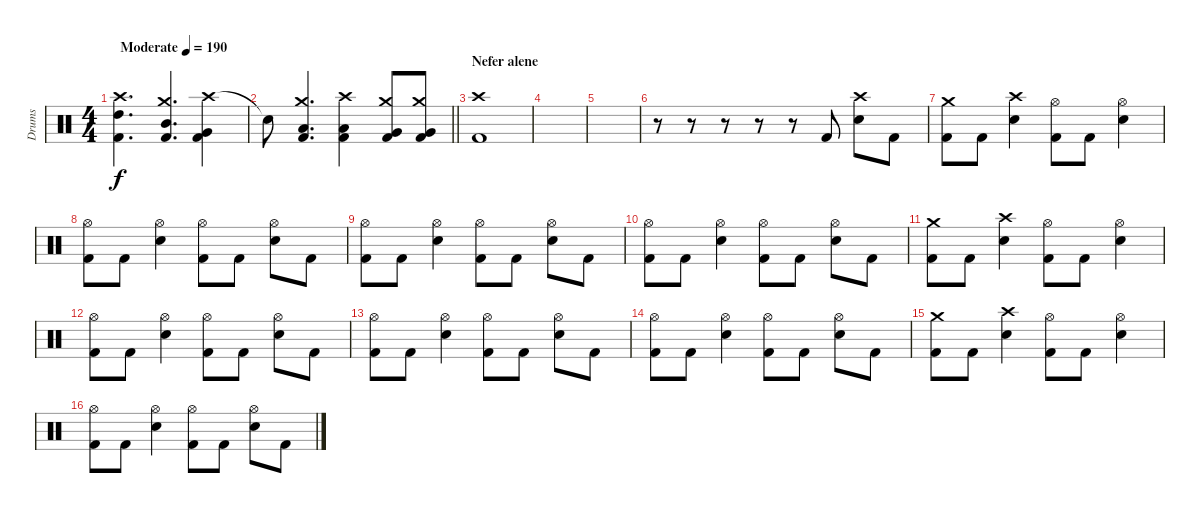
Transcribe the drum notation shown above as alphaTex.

\track ("Drums" "Drums") {instrument percussion}
\staff {score}
\articulation defaults
\ts (4 4)
\tempo (190 "Moderate")
\clef neutral
\ks c
("Crash high (hit)" "High Tom (hit)" "Kick (hit) 2").4{d dy f} ("Crash medium (hit)" "Mid Tom (hit)" "Kick (hit) 2").4{d} ("Crash high (hit)" "Very Low Tom (hit)" "Kick (hit) 2").4 |
\barLineRight lightlight "Snare (hit)"{t}.8
("Crash medium (hit)" "Low Tom (hit)" "Kick (hit) 2").4{d} ("Crash high (hit)" "Low Floor Tom (hit)" "Kick (hit) 2").4 ("Crash medium (hit)" "Very Low Tom (hit)" "Kick (hit) 2").8 ("Crash medium (hit)" "Very Low Tom (hit)" "Kick (hit) 2").8 |
\section ("" "Nefer alene")
("Crash high (hit)" "Kick (hit) 2").1 |
|
|
r.8 r.8 r.8 r.8 r.8 "Kick (hit) 2".8 ("Crash high (hit)" "Snare (hit) 2").8 "Kick (hit) 2".8 |
("Crash medium (hit)" "Kick (hit) 2").8 "Kick (hit) 2".8 ("Crash high (hit)" "Snare (hit) 2").4 ("Hi-Hat (open)" "Kick (hit) 2").8 "Kick (hit) 2".8 ("Hi-Hat (open)" "Snare (hit) 2").4 |
("Hi-Hat (open)" "Kick (hit) 2").8 "Kick (hit) 2".8 ("Hi-Hat (open)" "Snare (hit) 2").4 ("Hi-Hat (open)" "Kick (hit) 2").8 "Kick (hit) 2".8 ("Hi-Hat (open)" "Snare (hit) 2").8 "Kick (hit) 2".8 |
("Hi-Hat (open)" "Kick (hit) 2").8 "Kick (hit) 2".8 ("Hi-Hat (open)" "Snare (hit) 2").4 ("Hi-Hat (open)" "Kick (hit) 2").8 "Kick (hit) 2".8 ("Hi-Hat (open)" "Snare (hit) 2").8 "Kick (hit) 2".8 |
("Hi-Hat (open)" "Kick (hit) 2").8 "Kick (hit) 2".8 ("Hi-Hat (open)" "Snare (hit) 2").4 ("Hi-Hat (open)" "Kick (hit) 2").8 "Kick (hit) 2".8 ("Hi-Hat (open)" "Snare (hit) 2").8 "Kick (hit) 2".8 |
("Crash medium (hit)" "Kick (hit) 2").8 "Kick (hit) 2".8 ("Crash high (hit)" "Snare (hit) 2").4 ("Hi-Hat (open)" "Kick (hit) 2").8 "Kick (hit) 2".8 ("Hi-Hat (open)" "Snare (hit) 2").4 |
("Hi-Hat (open)" "Kick (hit) 2").8 "Kick (hit) 2".8 ("Hi-Hat (open)" "Snare (hit) 2").4 ("Hi-Hat (open)" "Kick (hit) 2").8 "Kick (hit) 2".8 ("Hi-Hat (open)" "Snare (hit) 2").8 "Kick (hit) 2".8 |
("Hi-Hat (open)" "Kick (hit) 2").8 "Kick (hit) 2".8 ("Hi-Hat (open)" "Snare (hit) 2").4 ("Hi-Hat (open)" "Kick (hit) 2").8 "Kick (hit) 2".8 ("Hi-Hat (open)" "Snare (hit) 2").8 "Kick (hit) 2".8 |
("Hi-Hat (open)" "Kick (hit) 2").8 "Kick (hit) 2".8 ("Hi-Hat (open)" "Snare (hit) 2").4 ("Hi-Hat (open)" "Kick (hit) 2").8 "Kick (hit) 2".8 ("Hi-Hat (open)" "Snare (hit) 2").8 "Kick (hit) 2".8 |
("Crash medium (hit)" "Kick (hit) 2").8 "Kick (hit) 2".8 ("Crash high (hit)" "Snare (hit) 2").4 ("Hi-Hat (open)" "Kick (hit) 2").8 "Kick (hit) 2".8 ("Hi-Hat (open)" "Snare (hit) 2").4 |
("Hi-Hat (open)" "Kick (hit) 2").8 "Kick (hit) 2".8 ("Hi-Hat (open)" "Snare (hit) 2").4 ("Hi-Hat (open)" "Kick (hit) 2").8 "Kick (hit) 2".8 ("Hi-Hat (open)" "Snare (hit) 2").8 "Kick (hit) 2".8
